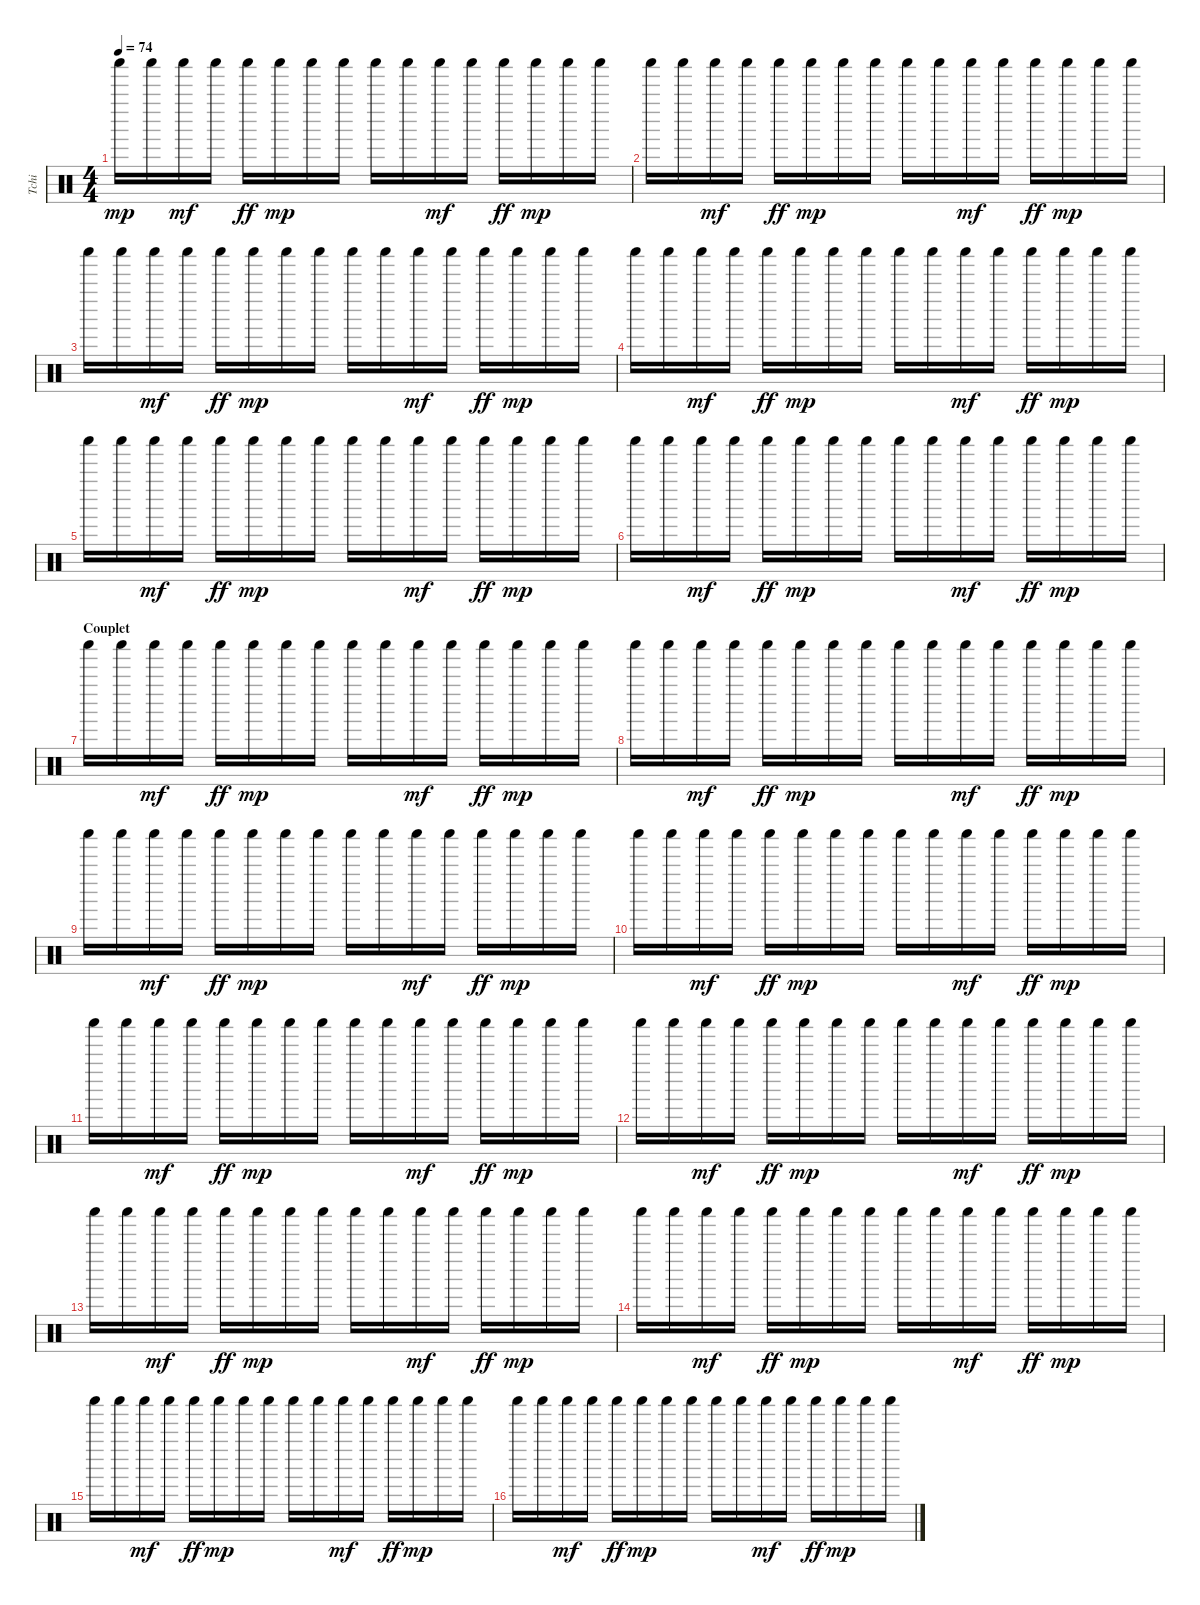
\track ("Tchi" "Tchi") {instrument percussion}
\staff {score}
\articulation defaults
\ts (4 4)
\tempo 74
\clef neutral
\ks c "Shaker (hit)".16{dy mp} "Shaker (hit)".16 "Shaker (hit)".16{dy mf} "Shaker (hit)".16 "Shaker (hit)".16{dy ff} "Shaker (hit)".16{dy mp} "Shaker (hit)".16 "Shaker (hit)".16 "Shaker (hit)".16 "Shaker (hit)".16 "Shaker (hit)".16{dy mf} "Shaker (hit)".16 "Shaker (hit)".16{dy ff} "Shaker (hit)".16{dy mp} "Shaker (hit)".16 "Shaker (hit)".16
|
"Shaker (hit)".16 "Shaker (hit)".16 "Shaker (hit)".16{dy mf} "Shaker (hit)".16 "Shaker (hit)".16{dy ff} "Shaker (hit)".16{dy mp} "Shaker (hit)".16 "Shaker (hit)".16 "Shaker (hit)".16 "Shaker (hit)".16 "Shaker (hit)".16{dy mf} "Shaker (hit)".16 "Shaker (hit)".16{dy ff} "Shaker (hit)".16{dy mp} "Shaker (hit)".16 "Shaker (hit)".16 |
"Shaker (hit)".16 "Shaker (hit)".16 "Shaker (hit)".16{dy mf} "Shaker (hit)".16 "Shaker (hit)".16{dy ff} "Shaker (hit)".16{dy mp} "Shaker (hit)".16 "Shaker (hit)".16 "Shaker (hit)".16 "Shaker (hit)".16 "Shaker (hit)".16{dy mf} "Shaker (hit)".16 "Shaker (hit)".16{dy ff} "Shaker (hit)".16{dy mp} "Shaker (hit)".16 "Shaker (hit)".16 |
"Shaker (hit)".16 "Shaker (hit)".16 "Shaker (hit)".16{dy mf} "Shaker (hit)".16 "Shaker (hit)".16{dy ff} "Shaker (hit)".16{dy mp} "Shaker (hit)".16 "Shaker (hit)".16 "Shaker (hit)".16 "Shaker (hit)".16 "Shaker (hit)".16{dy mf} "Shaker (hit)".16 "Shaker (hit)".16{dy ff} "Shaker (hit)".16{dy mp} "Shaker (hit)".16 "Shaker (hit)".16 |
"Shaker (hit)".16 "Shaker (hit)".16 "Shaker (hit)".16{dy mf} "Shaker (hit)".16 "Shaker (hit)".16{dy ff} "Shaker (hit)".16{dy mp} "Shaker (hit)".16 "Shaker (hit)".16 "Shaker (hit)".16 "Shaker (hit)".16 "Shaker (hit)".16{dy mf} "Shaker (hit)".16 "Shaker (hit)".16{dy ff} "Shaker (hit)".16{dy mp} "Shaker (hit)".16 "Shaker (hit)".16 |
"Shaker (hit)".16 "Shaker (hit)".16 "Shaker (hit)".16{dy mf} "Shaker (hit)".16 "Shaker (hit)".16{dy ff} "Shaker (hit)".16{dy mp} "Shaker (hit)".16 "Shaker (hit)".16 "Shaker (hit)".16 "Shaker (hit)".16 "Shaker (hit)".16{dy mf} "Shaker (hit)".16 "Shaker (hit)".16{dy ff} "Shaker (hit)".16{dy mp} "Shaker (hit)".16 "Shaker (hit)".16 |
\section ("" "Couplet")
"Shaker (hit)".16 "Shaker (hit)".16 "Shaker (hit)".16{dy mf} "Shaker (hit)".16 "Shaker (hit)".16{dy ff} "Shaker (hit)".16{dy mp} "Shaker (hit)".16 "Shaker (hit)".16 "Shaker (hit)".16 "Shaker (hit)".16 "Shaker (hit)".16{dy mf} "Shaker (hit)".16 "Shaker (hit)".16{dy ff} "Shaker (hit)".16{dy mp} "Shaker (hit)".16 "Shaker (hit)".16 |
"Shaker (hit)".16 "Shaker (hit)".16 "Shaker (hit)".16{dy mf} "Shaker (hit)".16 "Shaker (hit)".16{dy ff} "Shaker (hit)".16{dy mp} "Shaker (hit)".16 "Shaker (hit)".16 "Shaker (hit)".16 "Shaker (hit)".16 "Shaker (hit)".16{dy mf} "Shaker (hit)".16 "Shaker (hit)".16{dy ff} "Shaker (hit)".16{dy mp} "Shaker (hit)".16 "Shaker (hit)".16 |
"Shaker (hit)".16 "Shaker (hit)".16 "Shaker (hit)".16{dy mf} "Shaker (hit)".16 "Shaker (hit)".16{dy ff} "Shaker (hit)".16{dy mp} "Shaker (hit)".16 "Shaker (hit)".16 "Shaker (hit)".16 "Shaker (hit)".16 "Shaker (hit)".16{dy mf} "Shaker (hit)".16 "Shaker (hit)".16{dy ff} "Shaker (hit)".16{dy mp} "Shaker (hit)".16 "Shaker (hit)".16 |
"Shaker (hit)".16 "Shaker (hit)".16 "Shaker (hit)".16{dy mf} "Shaker (hit)".16 "Shaker (hit)".16{dy ff} "Shaker (hit)".16{dy mp} "Shaker (hit)".16 "Shaker (hit)".16 "Shaker (hit)".16 "Shaker (hit)".16 "Shaker (hit)".16{dy mf} "Shaker (hit)".16 "Shaker (hit)".16{dy ff} "Shaker (hit)".16{dy mp} "Shaker (hit)".16 "Shaker (hit)".16 |
"Shaker (hit)".16 "Shaker (hit)".16 "Shaker (hit)".16{dy mf} "Shaker (hit)".16 "Shaker (hit)".16{dy ff} "Shaker (hit)".16{dy mp} "Shaker (hit)".16 "Shaker (hit)".16 "Shaker (hit)".16 "Shaker (hit)".16 "Shaker (hit)".16{dy mf} "Shaker (hit)".16 "Shaker (hit)".16{dy ff} "Shaker (hit)".16{dy mp} "Shaker (hit)".16 "Shaker (hit)".16 |
"Shaker (hit)".16 "Shaker (hit)".16 "Shaker (hit)".16{dy mf} "Shaker (hit)".16 "Shaker (hit)".16{dy ff} "Shaker (hit)".16{dy mp} "Shaker (hit)".16 "Shaker (hit)".16 "Shaker (hit)".16 "Shaker (hit)".16 "Shaker (hit)".16{dy mf} "Shaker (hit)".16 "Shaker (hit)".16{dy ff} "Shaker (hit)".16{dy mp} "Shaker (hit)".16 "Shaker (hit)".16 |
"Shaker (hit)".16 "Shaker (hit)".16 "Shaker (hit)".16{dy mf} "Shaker (hit)".16 "Shaker (hit)".16{dy ff} "Shaker (hit)".16{dy mp} "Shaker (hit)".16 "Shaker (hit)".16 "Shaker (hit)".16 "Shaker (hit)".16 "Shaker (hit)".16{dy mf} "Shaker (hit)".16 "Shaker (hit)".16{dy ff} "Shaker (hit)".16{dy mp} "Shaker (hit)".16 "Shaker (hit)".16 |
"Shaker (hit)".16 "Shaker (hit)".16 "Shaker (hit)".16{dy mf} "Shaker (hit)".16 "Shaker (hit)".16{dy ff} "Shaker (hit)".16{dy mp} "Shaker (hit)".16 "Shaker (hit)".16 "Shaker (hit)".16 "Shaker (hit)".16 "Shaker (hit)".16{dy mf} "Shaker (hit)".16 "Shaker (hit)".16{dy ff} "Shaker (hit)".16{dy mp} "Shaker (hit)".16 "Shaker (hit)".16 |
"Shaker (hit)".16 "Shaker (hit)".16 "Shaker (hit)".16{dy mf} "Shaker (hit)".16 "Shaker (hit)".16{dy ff} "Shaker (hit)".16{dy mp} "Shaker (hit)".16 "Shaker (hit)".16 "Shaker (hit)".16 "Shaker (hit)".16 "Shaker (hit)".16{dy mf} "Shaker (hit)".16 "Shaker (hit)".16{dy ff} "Shaker (hit)".16{dy mp} "Shaker (hit)".16 "Shaker (hit)".16 |
"Shaker (hit)".16 "Shaker (hit)".16 "Shaker (hit)".16{dy mf} "Shaker (hit)".16 "Shaker (hit)".16{dy ff} "Shaker (hit)".16{dy mp} "Shaker (hit)".16 "Shaker (hit)".16 "Shaker (hit)".16 "Shaker (hit)".16 "Shaker (hit)".16{dy mf} "Shaker (hit)".16 "Shaker (hit)".16{dy ff} "Shaker (hit)".16{dy mp} "Shaker (hit)".16 "Shaker (hit)".16
